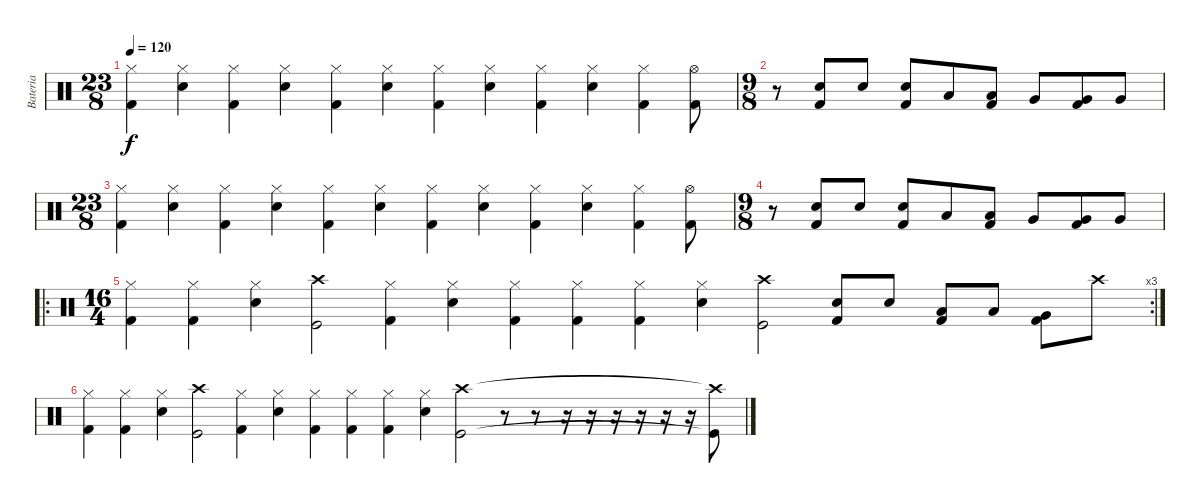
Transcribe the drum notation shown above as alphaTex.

\track ("Bateria" "Bateria") {instrument percussion}
\staff {score}
\articulation defaults
\ts (23 8)
\tempo 120
\clef neutral
\ks c
("Hi-Hat (closed)" "Kick (hit) 2").4{dy f} ("Hi-Hat (closed)" "Snare (hit) 2").4 ("Hi-Hat (closed)" "Kick (hit) 2").4 ("Hi-Hat (closed)" "Snare (hit) 2").4 ("Hi-Hat (closed)" "Kick (hit) 2").4 ("Hi-Hat (closed)" "Snare (hit) 2").4 ("Hi-Hat (closed)" "Kick (hit) 2").4 ("Hi-Hat (closed)" "Snare (hit) 2").4 ("Hi-Hat (closed)" "Kick (hit) 2").4 ("Hi-Hat (closed)" "Snare (hit) 2").4 ("Hi-Hat (closed)" "Kick (hit) 2").4 ("Kick (hit) 2" "Hi-Hat (open)").8 |
\ts (9 8)
r.8 ("Snare (hit) 2" "Kick (hit) 2").8 "Snare (hit) 2".8 ("Snare (hit) 2" "Kick (hit) 2").8 "Low Floor Tom (hit)".8 ("Low Floor Tom (hit)" "Kick (hit) 2").8 "Very Low Tom (hit)".8 ("Very Low Tom (hit)" "Kick (hit) 2").8 "Very Low Tom (hit)".8 |
\ts (23 8)
("Hi-Hat (closed)" "Kick (hit) 2").4 ("Hi-Hat (closed)" "Snare (hit) 2").4 ("Hi-Hat (closed)" "Kick (hit) 2").4 ("Hi-Hat (closed)" "Snare (hit) 2").4 ("Hi-Hat (closed)" "Kick (hit) 2").4 ("Hi-Hat (closed)" "Snare (hit) 2").4 ("Hi-Hat (closed)" "Kick (hit) 2").4 ("Hi-Hat (closed)" "Snare (hit) 2").4 ("Hi-Hat (closed)" "Kick (hit) 2").4 ("Hi-Hat (closed)" "Snare (hit) 2").4 ("Hi-Hat (closed)" "Kick (hit) 2").4 ("Kick (hit) 2" "Hi-Hat (open)").8 |
\ts (9 8)
r.8 ("Snare (hit) 2" "Kick (hit) 2").8 "Snare (hit) 2".8 ("Snare (hit) 2" "Kick (hit) 2").8 "Low Floor Tom (hit)".8 ("Low Floor Tom (hit)" "Kick (hit) 2").8 "Very Low Tom (hit)".8 ("Very Low Tom (hit)" "Kick (hit) 2").8 "Very Low Tom (hit)".8 |
\ro
\rc 3
\ts (16 4)
("Hi-Hat (closed)" "Kick (hit) 2").4 ("Hi-Hat (closed)" "Kick (hit) 2").4 ("Hi-Hat (closed)" "Snare (hit) 2").4 ("Kick (hit)" "Crash high (hit)").2 ("Hi-Hat (closed)" "Kick (hit) 2").4 ("Hi-Hat (closed)" "Snare (hit) 2").4 ("Hi-Hat (closed)" "Kick (hit) 2").4 ("Hi-Hat (closed)" "Kick (hit) 2").4 ("Hi-Hat (closed)" "Kick (hit) 2").4 ("Hi-Hat (closed)" "Snare (hit) 2").4 ("Kick (hit)" "Crash high (hit)").2 ("Kick (hit) 2" "Snare (hit) 2").8 "Snare (hit) 2".8 ("Kick (hit) 2" "Low Floor Tom (hit)").8 "Low Floor Tom (hit)".8 ("Kick (hit) 2" "Very Low Tom (hit)").8 "Crash high (hit)".8 |
("Hi-Hat (closed)" "Kick (hit) 2").4 ("Hi-Hat (closed)" "Kick (hit) 2").4 ("Hi-Hat (closed)" "Snare (hit) 2").4 ("Kick (hit)" "Crash high (hit)").2 ("Hi-Hat (closed)" "Kick (hit) 2").4 ("Hi-Hat (closed)" "Snare (hit) 2").4 ("Hi-Hat (closed)" "Kick (hit) 2").4 ("Hi-Hat (closed)" "Kick (hit) 2").4 ("Hi-Hat (closed)" "Kick (hit) 2").4 ("Hi-Hat (closed)" "Snare (hit) 2").4 ("Kick (hit)" "Crash high (hit)").2 r.8 r.8 r.16 r.16 r.16 r.16 r.16 r.16 ("Kick (hit)"{t} "Crash high (hit)"{t}).8
